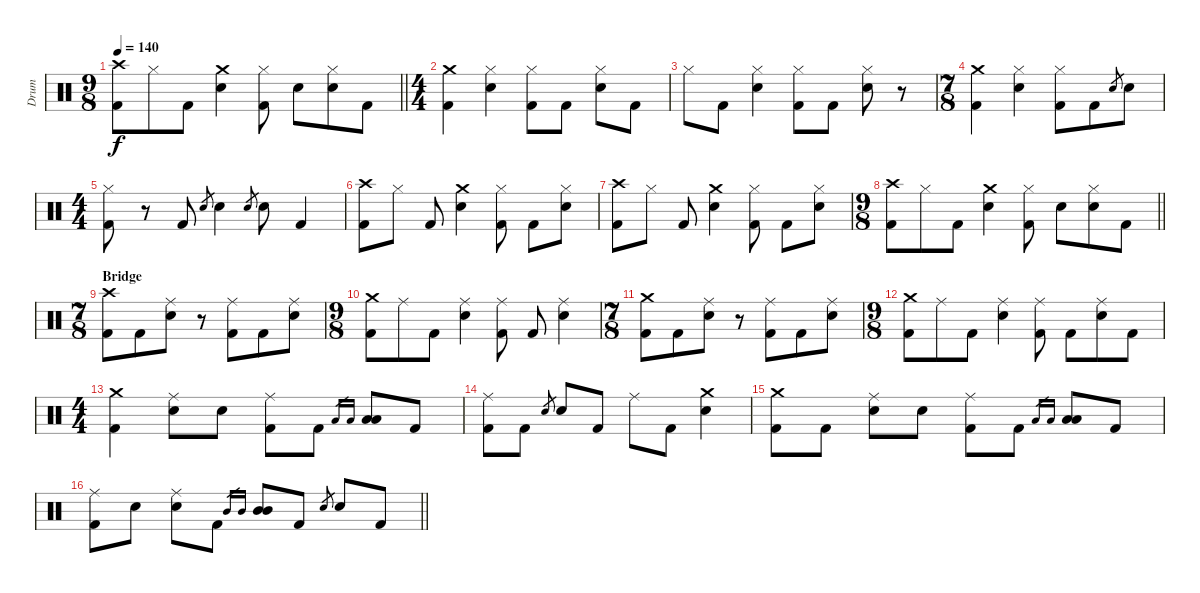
\track ("Drum" "Drum") {instrument percussion}
\staff {score}
\articulation defaults
\ts (9 8)
\tempo 140
\clef neutral
\barLineRight lightlight
\ks c
("Crash high (hit)" "Kick (hit) 2").8{dy f} "Hi-Hat (closed)".8 "Kick (hit) 2".8 ("Crash medium (hit)" "Electric Snare (hit)").4 ("Hi-Hat (closed)" "Kick (hit) 2").8 "Electric Snare (hit)".8 ("Hi-Hat (closed)" "Electric Snare (hit)").8 "Kick (hit) 2".8 |
\ts (4 4)
\section ("" "")
("Crash medium (hit)" "Kick (hit) 2").4 ("Hi-Hat (closed)" "Electric Snare (hit)").4 ("Hi-Hat (closed)" "Kick (hit) 2").8 "Kick (hit) 2".8 ("Hi-Hat (closed)" "Electric Snare (hit)").8 "Kick (hit) 2".8 |
"Hi-Hat (closed)".8 "Kick (hit) 2".8 ("Hi-Hat (closed)" "Electric Snare (hit)").4 ("Hi-Hat (closed)" "Kick (hit) 2").8 "Kick (hit) 2".8 ("Hi-Hat (closed)" "Electric Snare (hit)").8 r.8 |
\ts (7 8)
("Crash medium (hit)" "Kick (hit) 2").4 ("Hi-Hat (closed)" "Electric Snare (hit)").4 ("Hi-Hat (closed)" "Kick (hit) 2").8 "Kick (hit) 2".8 "Electric Snare (hit)".8{gr} "Electric Snare (hit)".8 |
\ts (4 4)
("Hi-Hat (closed)" "Kick (hit) 2").8 r.8 "Kick (hit) 2".8 "Electric Snare (hit)".8{gr} "Electric Snare (hit)".4 "Electric Snare (hit)".8{gr} "Electric Snare (hit)".8 "Kick (hit) 2".4 |
("Crash high (hit)" "Kick (hit) 2").8 "Hi-Hat (closed)".8 "Kick (hit) 2".8 ("Crash medium (hit)" "Electric Snare (hit)").4 ("Hi-Hat (closed)" "Kick (hit) 2").8 "Kick (hit) 2".8 ("Hi-Hat (closed)" "Electric Snare (hit)").8 |
("Crash high (hit)" "Kick (hit) 2").8 "Hi-Hat (closed)".8 "Kick (hit) 2".8 ("Crash medium (hit)" "Electric Snare (hit)").4 ("Hi-Hat (closed)" "Kick (hit) 2").8 "Kick (hit) 2".8 ("Hi-Hat (closed)" "Electric Snare (hit)").8 |
\ts (9 8)
\barLineRight lightlight
("Crash high (hit)" "Kick (hit) 2").8 "Hi-Hat (closed)".8 "Kick (hit) 2".8 ("Crash medium (hit)" "Electric Snare (hit)").4 ("Hi-Hat (closed)" "Kick (hit) 2").8 "Electric Snare (hit)".8 ("Hi-Hat (closed)" "Electric Snare (hit)").8 "Kick (hit) 2".8 |
\ts (7 8)
\section ("" "Bridge")
("Crash high (hit)" "Kick (hit) 2").8 "Kick (hit) 2".8 ("Ride (middle)" "Electric Snare (hit)").8 r.8 ("Ride (middle)" "Kick (hit) 2").8 "Kick (hit) 2".8 ("Ride (middle)" "Electric Snare (hit)").8 |
\ts (9 8)
("Crash medium (hit)" "Kick (hit) 2").8 "Ride (middle)".8 "Kick (hit) 2".8 ("Ride (middle)" "Electric Snare (hit)").4 ("Ride (middle)" "Kick (hit) 2").8 "Kick (hit) 2".8 ("Ride (middle)" "Electric Snare (hit)").4 |
\ts (7 8)
("Crash medium (hit)" "Kick (hit) 2").8 "Kick (hit) 2".8 ("Ride (middle)" "Electric Snare (hit)").8 r.8 ("Ride (middle)" "Kick (hit) 2").8 "Kick (hit) 2".8 ("Ride (middle)" "Electric Snare (hit)").8 |
\ts (9 8)
("Crash medium (hit)" "Kick (hit) 2").8 "Ride (middle)".8 "Kick (hit) 2".8 ("Ride (middle)" "Electric Snare (hit)").4 ("Ride (middle)" "Kick (hit) 2").8 "Kick (hit) 2".8 ("Ride (middle)" "Electric Snare (hit)").8 "Kick (hit) 2".8 |
\ts (4 4)
("Crash medium (hit)" "Kick (hit) 2").4 ("Ride (middle)" "Electric Snare (hit)").8 "Electric Snare (hit)".8 ("Ride (middle)" "Kick (hit) 2").8 "Kick (hit) 2".8 "Low Tom (hit)".16{gr} "Low Tom (hit)".16{gr} ("Low Tom (hit)" "Low Tom (hit)").8 "Kick (hit) 2".8 |
("Ride (middle)" "Kick (hit) 2").8 "Kick (hit) 2".8 "Electric Snare (hit)".8{gr} "Electric Snare (hit)".8 "Kick (hit) 2".8 "Ride (middle)".8 "Kick (hit) 2".8 ("Crash medium (hit)" "Electric Snare (hit)").4 |
("Crash medium (hit)" "Kick (hit) 2").8 "Kick (hit) 2".8 ("Ride (middle)" "Electric Snare (hit)").8 "Electric Snare (hit)".8 ("Ride (middle)" "Kick (hit) 2").8 "Kick (hit) 2".8 "Low Tom (hit)".16{gr} "Low Tom (hit)".16{gr} ("Low Tom (hit)" "Low Tom (hit)").8 "Kick (hit) 2".8 |
\barLineRight lightlight
("Ride (middle)" "Kick (hit) 2").8 "Electric Snare (hit)".8 ("Ride (middle)" "Electric Snare (hit)").8 "Kick (hit) 2".8 "Mid Tom (hit)".16{gr} "Mid Tom (hit)".16{gr} ("Mid Tom (hit)" "Mid Tom (hit)").8 "Kick (hit) 2".8 "Electric Snare (hit)".8{gr} "Electric Snare (hit)".8 "Kick (hit) 2".8
